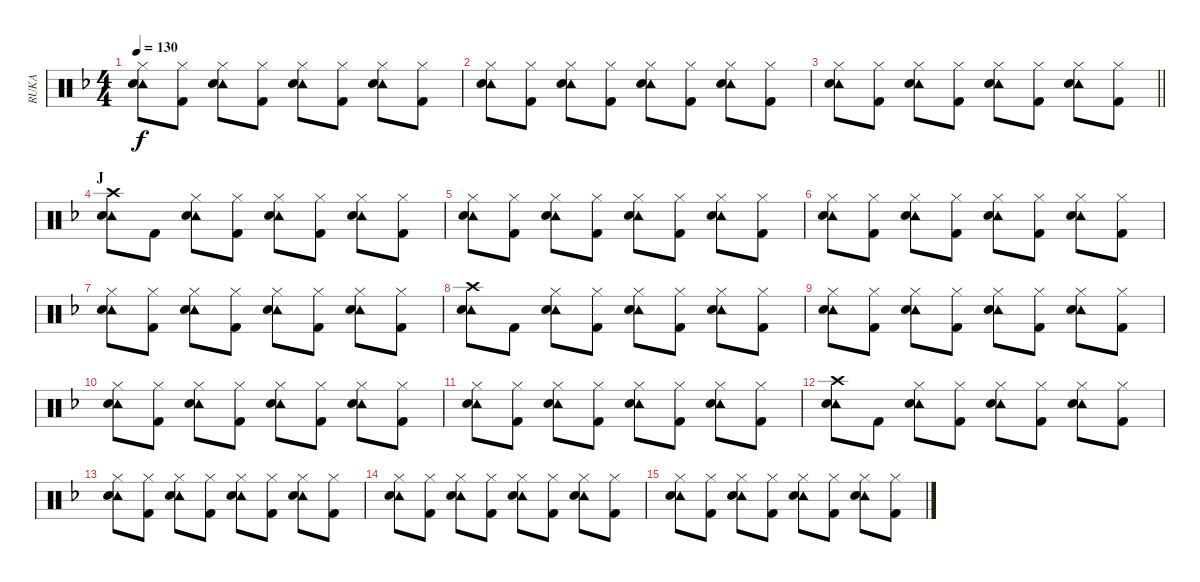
\track ("RUKA" "RUKA") {instrument percussion}
\staff {score}
\articulation defaults
\ts (4 4)
\tempo 130
\clef neutral
\ks f
("Hi-Hat (closed)" "Tambourine (hit)" "Snare (hit) 2").8{dy f} ("Hi-Hat (closed)" "Kick (hit) 2").8 ("Hi-Hat (closed)" "Tambourine (hit)" "Snare (hit) 2").8 ("Hi-Hat (closed)" "Kick (hit) 2").8 ("Hi-Hat (closed)" "Tambourine (hit)" "Snare (hit) 2").8 ("Hi-Hat (closed)" "Kick (hit) 2").8 ("Hi-Hat (closed)" "Tambourine (hit)" "Snare (hit) 2").8 ("Hi-Hat (closed)" "Kick (hit) 2").8 |
("Hi-Hat (closed)" "Tambourine (hit)" "Snare (hit) 2").8 ("Hi-Hat (closed)" "Kick (hit) 2").8 ("Hi-Hat (closed)" "Tambourine (hit)" "Snare (hit) 2").8 ("Hi-Hat (closed)" "Kick (hit) 2").8 ("Hi-Hat (closed)" "Tambourine (hit)" "Snare (hit) 2").8 ("Hi-Hat (closed)" "Kick (hit) 2").8 ("Hi-Hat (closed)" "Tambourine (hit)" "Snare (hit) 2").8 ("Hi-Hat (closed)" "Kick (hit) 2").8 |
\barLineRight lightlight
("Hi-Hat (closed)" "Tambourine (hit)" "Snare (hit) 2").8 ("Hi-Hat (closed)" "Kick (hit) 2").8 ("Hi-Hat (closed)" "Tambourine (hit)" "Snare (hit) 2").8 ("Hi-Hat (closed)" "Kick (hit) 2").8 ("Hi-Hat (closed)" "Tambourine (hit)" "Snare (hit) 2").8 ("Hi-Hat (closed)" "Kick (hit) 2").8 ("Hi-Hat (closed)" "Tambourine (hit)" "Snare (hit) 2").8 ("Hi-Hat (closed)" "Kick (hit) 2").8 |
\section ("" "J")
("Crash high (hit)" "Tambourine (hit)" "Snare (hit) 2").8 "Kick (hit) 2".8 ("Hi-Hat (closed)" "Tambourine (hit)" "Snare (hit) 2").8 ("Hi-Hat (closed)" "Kick (hit) 2").8 ("Hi-Hat (closed)" "Tambourine (hit)" "Snare (hit) 2").8 ("Hi-Hat (closed)" "Kick (hit) 2").8 ("Hi-Hat (closed)" "Tambourine (hit)" "Snare (hit) 2").8 ("Hi-Hat (closed)" "Kick (hit) 2").8 |
("Hi-Hat (closed)" "Tambourine (hit)" "Snare (hit) 2").8 ("Hi-Hat (closed)" "Kick (hit) 2").8 ("Hi-Hat (closed)" "Tambourine (hit)" "Snare (hit) 2").8 ("Hi-Hat (closed)" "Kick (hit) 2").8 ("Hi-Hat (closed)" "Tambourine (hit)" "Snare (hit) 2").8 ("Hi-Hat (closed)" "Kick (hit) 2").8 ("Hi-Hat (closed)" "Tambourine (hit)" "Snare (hit) 2").8 ("Hi-Hat (closed)" "Kick (hit) 2").8 |
("Hi-Hat (closed)" "Tambourine (hit)" "Snare (hit) 2").8 ("Hi-Hat (closed)" "Kick (hit) 2").8 ("Hi-Hat (closed)" "Tambourine (hit)" "Snare (hit) 2").8 ("Hi-Hat (closed)" "Kick (hit) 2").8 ("Hi-Hat (closed)" "Tambourine (hit)" "Snare (hit) 2").8 ("Hi-Hat (closed)" "Kick (hit) 2").8 ("Hi-Hat (closed)" "Tambourine (hit)" "Snare (hit) 2").8 ("Hi-Hat (closed)" "Kick (hit) 2").8 |
("Hi-Hat (closed)" "Tambourine (hit)" "Snare (hit) 2").8 ("Hi-Hat (closed)" "Kick (hit) 2").8 ("Hi-Hat (closed)" "Tambourine (hit)" "Snare (hit) 2").8 ("Hi-Hat (closed)" "Kick (hit) 2").8 ("Hi-Hat (closed)" "Tambourine (hit)" "Snare (hit) 2").8 ("Hi-Hat (closed)" "Kick (hit) 2").8 ("Hi-Hat (closed)" "Tambourine (hit)" "Snare (hit) 2").8 ("Hi-Hat (closed)" "Kick (hit) 2").8 |
("Crash high (hit)" "Tambourine (hit)" "Snare (hit) 2").8 "Kick (hit) 2".8 ("Hi-Hat (closed)" "Tambourine (hit)" "Snare (hit) 2").8 ("Hi-Hat (closed)" "Kick (hit) 2").8 ("Hi-Hat (closed)" "Tambourine (hit)" "Snare (hit) 2").8 ("Hi-Hat (closed)" "Kick (hit) 2").8 ("Hi-Hat (closed)" "Tambourine (hit)" "Snare (hit) 2").8 ("Hi-Hat (closed)" "Kick (hit) 2").8 |
("Hi-Hat (closed)" "Tambourine (hit)" "Snare (hit) 2").8 ("Hi-Hat (closed)" "Kick (hit) 2").8 ("Hi-Hat (closed)" "Tambourine (hit)" "Snare (hit) 2").8 ("Hi-Hat (closed)" "Kick (hit) 2").8 ("Hi-Hat (closed)" "Tambourine (hit)" "Snare (hit) 2").8 ("Hi-Hat (closed)" "Kick (hit) 2").8 ("Hi-Hat (closed)" "Tambourine (hit)" "Snare (hit) 2").8 ("Hi-Hat (closed)" "Kick (hit) 2").8 |
("Hi-Hat (closed)" "Tambourine (hit)" "Snare (hit) 2").8 ("Hi-Hat (closed)" "Kick (hit) 2").8 ("Hi-Hat (closed)" "Tambourine (hit)" "Snare (hit) 2").8 ("Hi-Hat (closed)" "Kick (hit) 2").8 ("Hi-Hat (closed)" "Tambourine (hit)" "Snare (hit) 2").8 ("Hi-Hat (closed)" "Kick (hit) 2").8 ("Hi-Hat (closed)" "Tambourine (hit)" "Snare (hit) 2").8 ("Hi-Hat (closed)" "Kick (hit) 2").8 |
("Hi-Hat (closed)" "Tambourine (hit)" "Snare (hit) 2").8 ("Hi-Hat (closed)" "Kick (hit) 2").8 ("Hi-Hat (closed)" "Tambourine (hit)" "Snare (hit) 2").8 ("Hi-Hat (closed)" "Kick (hit) 2").8 ("Hi-Hat (closed)" "Tambourine (hit)" "Snare (hit) 2").8 ("Hi-Hat (closed)" "Kick (hit) 2").8 ("Hi-Hat (closed)" "Tambourine (hit)" "Snare (hit) 2").8 ("Hi-Hat (closed)" "Kick (hit) 2").8 |
("Crash high (hit)" "Tambourine (hit)" "Snare (hit) 2").8 "Kick (hit) 2".8 ("Hi-Hat (closed)" "Tambourine (hit)" "Snare (hit) 2").8 ("Hi-Hat (closed)" "Kick (hit) 2").8 ("Hi-Hat (closed)" "Tambourine (hit)" "Snare (hit) 2").8 ("Hi-Hat (closed)" "Kick (hit) 2").8 ("Hi-Hat (closed)" "Tambourine (hit)" "Snare (hit) 2").8 ("Hi-Hat (closed)" "Kick (hit) 2").8 |
("Hi-Hat (closed)" "Tambourine (hit)" "Snare (hit) 2").8 ("Hi-Hat (closed)" "Kick (hit) 2").8 ("Hi-Hat (closed)" "Tambourine (hit)" "Snare (hit) 2").8 ("Hi-Hat (closed)" "Kick (hit) 2").8 ("Hi-Hat (closed)" "Tambourine (hit)" "Snare (hit) 2").8 ("Hi-Hat (closed)" "Kick (hit) 2").8 ("Hi-Hat (closed)" "Tambourine (hit)" "Snare (hit) 2").8 ("Hi-Hat (closed)" "Kick (hit) 2").8 |
("Hi-Hat (closed)" "Tambourine (hit)" "Snare (hit) 2").8 ("Hi-Hat (closed)" "Kick (hit) 2").8 ("Hi-Hat (closed)" "Tambourine (hit)" "Snare (hit) 2").8 ("Hi-Hat (closed)" "Kick (hit) 2").8 ("Hi-Hat (closed)" "Tambourine (hit)" "Snare (hit) 2").8 ("Hi-Hat (closed)" "Kick (hit) 2").8 ("Hi-Hat (closed)" "Tambourine (hit)" "Snare (hit) 2").8 ("Hi-Hat (closed)" "Kick (hit) 2").8 |
("Hi-Hat (closed)" "Tambourine (hit)" "Snare (hit) 2").8 ("Hi-Hat (closed)" "Kick (hit) 2").8 ("Hi-Hat (closed)" "Tambourine (hit)" "Snare (hit) 2").8 ("Hi-Hat (closed)" "Kick (hit) 2").8 ("Hi-Hat (closed)" "Tambourine (hit)" "Snare (hit) 2").8 ("Hi-Hat (closed)" "Kick (hit) 2").8 ("Hi-Hat (closed)" "Tambourine (hit)" "Snare (hit) 2").8 ("Hi-Hat (closed)" "Kick (hit) 2").8
